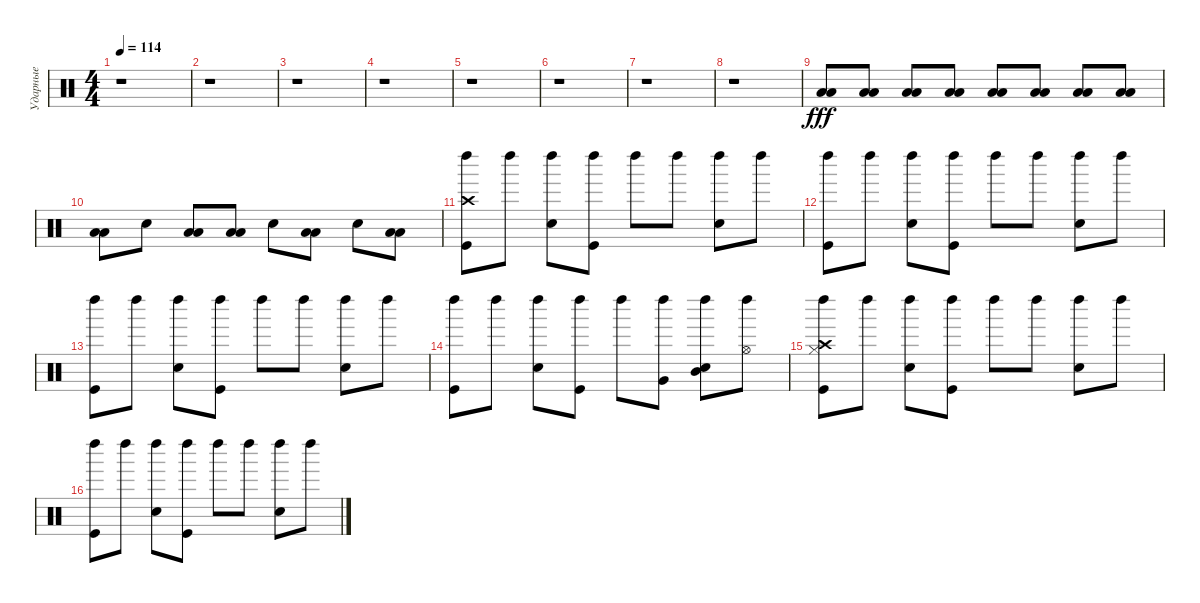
\track ("Ударные" "Ударные") {instrument percussion}
\staff {score}
\articulation defaults
\ts (4 4)
\tempo 114
\clef neutral
\ks c
r.1{dy f} |
r.1 |
r.1 |
r.1 |
r.1 |
r.1 |
r.1 |
r.1 |
("Low Floor Tom (hit)" "Low Tom (hit)").8{dy fff} ("Low Tom (hit)" "Low Floor Tom (hit)").8 ("Low Floor Tom (hit)" "Low Tom (hit)").8 ("Low Tom (hit)" "Low Floor Tom (hit)").8 ("Low Floor Tom (hit)" "Low Tom (hit)").8 ("Low Tom (hit)" "Low Floor Tom (hit)").8 ("Low Floor Tom (hit)" "Low Tom (hit)").8 ("Low Floor Tom (hit)" "Low Tom (hit)").8 |
("Low Floor Tom (hit)" "Low Tom (hit)").8 "Snare (hit) 2".8 ("Low Tom (hit)" "Low Floor Tom (hit)").8 ("Low Floor Tom (hit)" "Low Tom (hit)").8 "Snare (hit) 2".8 ("Low Tom (hit)" "Low Floor Tom (hit)").8 "Snare (hit) 2".8 ("Low Tom (hit)" "Low Floor Tom (hit)").8 |
("Left Maraca (hit)" "Kick (hit)" "Crash high (hit)").8 "Left Maraca (hit)".8 ("Snare (hit) 2" "Left Maraca (hit)").8 ("Kick (hit)" "Left Maraca (hit)").8 "Left Maraca (hit)".8 "Left Maraca (hit)".8 ("Snare (hit) 2" "Left Maraca (hit)").8 "Left Maraca (hit)".8 |
("Kick (hit)" "Left Maraca (hit)").8 "Left Maraca (hit)".8 ("Snare (hit) 2" "Left Maraca (hit)").8 ("Kick (hit)" "Left Maraca (hit)").8 "Left Maraca (hit)".8 "Left Maraca (hit)".8 ("Snare (hit) 2" "Left Maraca (hit)").8 "Left Maraca (hit)".8 |
("Kick (hit)" "Left Maraca (hit)").8 "Left Maraca (hit)".8 ("Snare (hit) 2" "Left Maraca (hit)").8 ("Kick (hit)" "Left Maraca (hit)").8 "Left Maraca (hit)".8 "Left Maraca (hit)".8 ("Snare (hit) 2" "Left Maraca (hit)").8 "Left Maraca (hit)".8 |
("Kick (hit)" "Left Maraca (hit)").8 "Left Maraca (hit)".8 ("Snare (hit) 2" "Left Maraca (hit)").8 ("Kick (hit)" "Left Maraca (hit)").8 "Left Maraca (hit)".8 ("Left Maraca (hit)" "Very Low Tom (hit)").8 ("Snare (hit) 2" "Left Maraca (hit)" "Mid Tom (hit)").8 ("Left Maraca (hit)" "Hi-Hat (open)").8 |
("Kick (hit)" "Crash high (hit)" "Left Maraca (hit)" "Hi-Hat (closed)").8 "Left Maraca (hit)".8 ("Snare (hit) 2" "Left Maraca (hit)").8 ("Kick (hit)" "Left Maraca (hit)").8 "Left Maraca (hit)".8 "Left Maraca (hit)".8 ("Snare (hit) 2" "Left Maraca (hit)").8 "Left Maraca (hit)".8 |
("Kick (hit)" "Left Maraca (hit)").8 "Left Maraca (hit)".8 ("Snare (hit) 2" "Left Maraca (hit)").8 ("Kick (hit)" "Left Maraca (hit)").8 "Left Maraca (hit)".8 "Left Maraca (hit)".8 ("Snare (hit) 2" "Left Maraca (hit)").8 "Left Maraca (hit)".8
